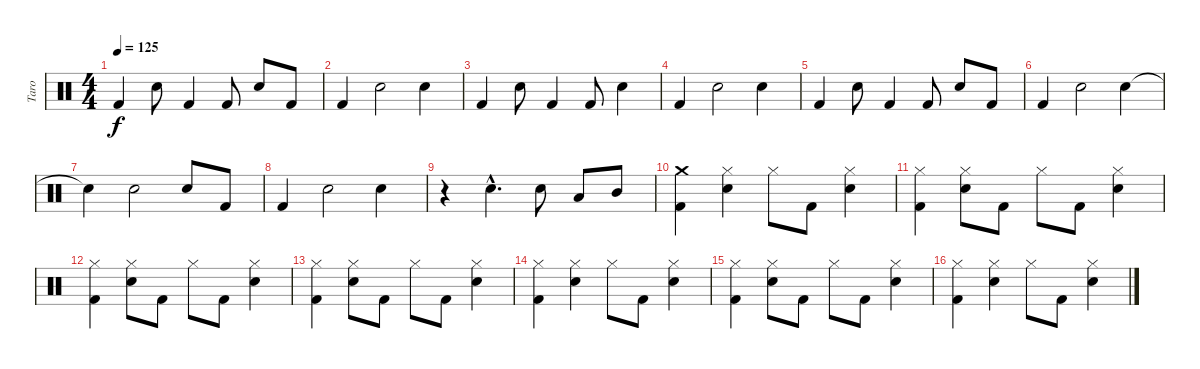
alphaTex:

\track ("Taro" "Taro") {instrument percussion}
\staff {score}
\articulation defaults
\ts (4 4)
\tempo 125
\clef neutral
\ks c "Kick (hit) 2".4{dy f} "Electric Snare (hit)".8 "Kick (hit) 2".4 "Kick (hit) 2".8 "Electric Snare (hit)".8 "Kick (hit) 2".8
|
"Kick (hit) 2".4 "Electric Snare (hit)".2 "Electric Snare (hit)".4 |
"Kick (hit) 2".4 "Electric Snare (hit)".8 "Kick (hit) 2".4 "Kick (hit) 2".8 "Electric Snare (hit)".4 |
"Kick (hit) 2".4 "Electric Snare (hit)".2 "Electric Snare (hit)".4 |
"Kick (hit) 2".4 "Electric Snare (hit)".8 "Kick (hit) 2".4 "Kick (hit) 2".8 "Electric Snare (hit)".8 "Kick (hit) 2".8 |
"Kick (hit) 2".4 "Electric Snare (hit)".2 "Electric Snare (hit)".4 |
"Electric Snare (hit)"{t}.4 "Electric Snare (hit)".2 "Electric Snare (hit)".8 "Kick (hit) 2".8 |
"Kick (hit) 2".4 "Electric Snare (hit)".2 "Electric Snare (hit)".4 |
r.4 "Electric Snare (hit)"{hac}.4{d} "Electric Snare (hit)".8 "Low Tom (hit)".8 "Mid Tom (hit)".8 |
("Crash medium (hit)" "Kick (hit) 2").4 ("Hi-Hat (closed)" "Electric Snare (hit)").4 "Hi-Hat (closed)".8 "Kick (hit) 2".8 ("Hi-Hat (closed)" "Electric Snare (hit)").4 |
("Hi-Hat (closed)" "Kick (hit) 2").4 ("Hi-Hat (closed)" "Electric Snare (hit)").8 "Kick (hit) 2".8 "Hi-Hat (closed)".8 "Kick (hit) 2".8 ("Hi-Hat (closed)" "Electric Snare (hit)").4 |
("Hi-Hat (closed)" "Kick (hit) 2").4 ("Hi-Hat (closed)" "Electric Snare (hit)").8 "Kick (hit) 2".8 "Hi-Hat (closed)".8 "Kick (hit) 2".8 ("Hi-Hat (closed)" "Electric Snare (hit)").4 |
("Hi-Hat (closed)" "Kick (hit) 2").4 ("Hi-Hat (closed)" "Electric Snare (hit)").8 "Kick (hit) 2".8 "Hi-Hat (closed)".8 "Kick (hit) 2".8 ("Hi-Hat (closed)" "Electric Snare (hit)").4 |
("Hi-Hat (closed)" "Kick (hit) 2").4 ("Hi-Hat (closed)" "Electric Snare (hit)").4 "Hi-Hat (closed)".8 "Kick (hit) 2".8 ("Hi-Hat (closed)" "Electric Snare (hit)").4 |
("Hi-Hat (closed)" "Kick (hit) 2").4 ("Hi-Hat (closed)" "Electric Snare (hit)").8 "Kick (hit) 2".8 "Hi-Hat (closed)".8 "Kick (hit) 2".8 ("Hi-Hat (closed)" "Electric Snare (hit)").4 |
("Hi-Hat (closed)" "Kick (hit) 2").4 ("Hi-Hat (closed)" "Electric Snare (hit)").4 "Hi-Hat (closed)".8 "Kick (hit) 2".8 ("Hi-Hat (closed)" "Electric Snare (hit)").4
